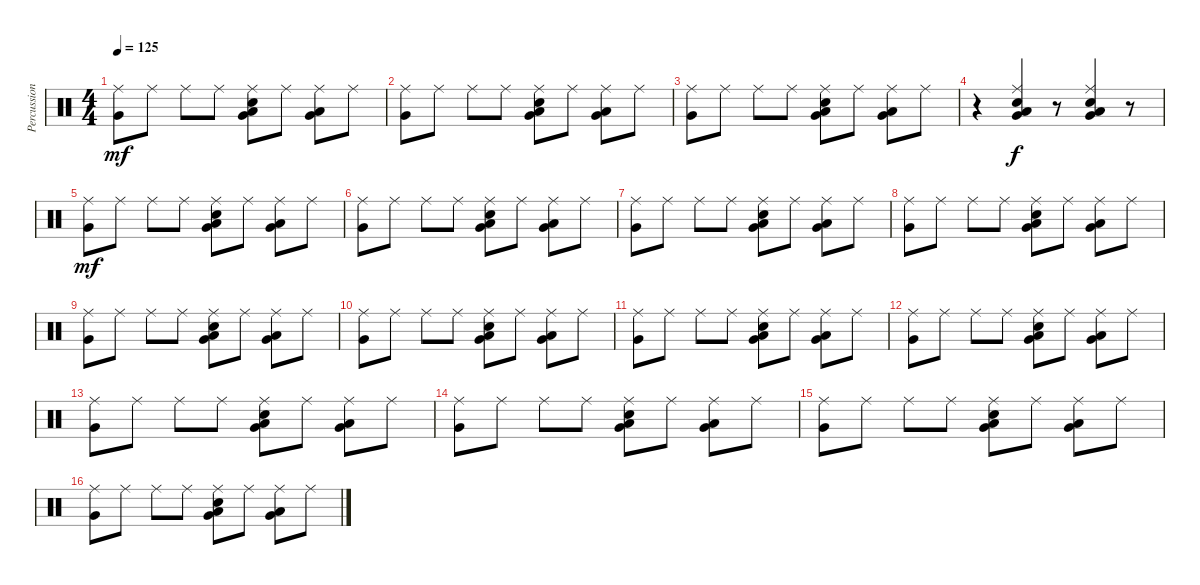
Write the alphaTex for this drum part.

\track ("Percussion" "Percussion") {instrument percussion}
\staff {score}
\articulation defaults
\ts (4 4)
\tempo 125
\clef neutral
\ks c
("Very Low Tom (hit)" "Ride (middle)").8{dy mf} "Ride (middle)".8 "Ride (middle)".8 "Ride (middle)".8 ("Very Low Tom (hit)" "Snare (hit) 2" "Low Floor Tom (hit)" "Ride (middle)").8 "Ride (middle)".8 ("Very Low Tom (hit)" "Low Floor Tom (hit)" "Ride (middle)").8 "Ride (middle)".8 |
("Very Low Tom (hit)" "Ride (middle)").8 "Ride (middle)".8 "Ride (middle)".8 "Ride (middle)".8 ("Very Low Tom (hit)" "Snare (hit) 2" "Low Floor Tom (hit)" "Ride (middle)").8 "Ride (middle)".8 ("Very Low Tom (hit)" "Low Floor Tom (hit)" "Ride (middle)").8 "Ride (middle)".8 |
("Very Low Tom (hit)" "Ride (middle)").8 "Ride (middle)".8 "Ride (middle)".8 "Ride (middle)".8 ("Very Low Tom (hit)" "Snare (hit) 2" "Low Floor Tom (hit)" "Ride (middle)").8 "Ride (middle)".8 ("Very Low Tom (hit)" "Low Floor Tom (hit)" "Ride (middle)").8 "Ride (middle)".8 |
r.4 ("Very Low Tom (hit)" "Low Floor Tom (hit)" "Ride (middle)" "Snare (hit) 2").4{dy f} r.8 ("Very Low Tom (hit)" "Low Floor Tom (hit)" "Ride (middle)" "Snare (hit) 2").4 r.8 |
("Very Low Tom (hit)" "Ride (middle)").8{dy mf} "Ride (middle)".8 "Ride (middle)".8 "Ride (middle)".8 ("Very Low Tom (hit)" "Snare (hit) 2" "Low Floor Tom (hit)" "Ride (middle)").8 "Ride (middle)".8 ("Very Low Tom (hit)" "Low Floor Tom (hit)" "Ride (middle)").8 "Ride (middle)".8 |
("Very Low Tom (hit)" "Ride (middle)").8 "Ride (middle)".8 "Ride (middle)".8 "Ride (middle)".8 ("Very Low Tom (hit)" "Snare (hit) 2" "Low Floor Tom (hit)" "Ride (middle)").8 "Ride (middle)".8 ("Very Low Tom (hit)" "Low Floor Tom (hit)" "Ride (middle)").8 "Ride (middle)".8 |
("Very Low Tom (hit)" "Ride (middle)").8 "Ride (middle)".8 "Ride (middle)".8 "Ride (middle)".8 ("Very Low Tom (hit)" "Snare (hit) 2" "Low Floor Tom (hit)" "Ride (middle)").8 "Ride (middle)".8 ("Very Low Tom (hit)" "Low Floor Tom (hit)" "Ride (middle)").8 "Ride (middle)".8 |
("Very Low Tom (hit)" "Ride (middle)").8 "Ride (middle)".8 "Ride (middle)".8 "Ride (middle)".8 ("Very Low Tom (hit)" "Snare (hit) 2" "Low Floor Tom (hit)" "Ride (middle)").8 "Ride (middle)".8 ("Very Low Tom (hit)" "Low Floor Tom (hit)" "Ride (middle)").8 "Ride (middle)".8 |
("Very Low Tom (hit)" "Ride (middle)").8 "Ride (middle)".8 "Ride (middle)".8 "Ride (middle)".8 ("Very Low Tom (hit)" "Snare (hit) 2" "Low Floor Tom (hit)" "Ride (middle)").8 "Ride (middle)".8 ("Very Low Tom (hit)" "Low Floor Tom (hit)" "Ride (middle)").8 "Ride (middle)".8 |
("Very Low Tom (hit)" "Ride (middle)").8 "Ride (middle)".8 "Ride (middle)".8 "Ride (middle)".8 ("Very Low Tom (hit)" "Snare (hit) 2" "Low Floor Tom (hit)" "Ride (middle)").8 "Ride (middle)".8 ("Very Low Tom (hit)" "Low Floor Tom (hit)" "Ride (middle)").8 "Ride (middle)".8 |
("Very Low Tom (hit)" "Ride (middle)").8 "Ride (middle)".8 "Ride (middle)".8 "Ride (middle)".8 ("Very Low Tom (hit)" "Snare (hit) 2" "Low Floor Tom (hit)" "Ride (middle)").8 "Ride (middle)".8 ("Very Low Tom (hit)" "Low Floor Tom (hit)" "Ride (middle)").8 "Ride (middle)".8 |
("Very Low Tom (hit)" "Ride (middle)").8 "Ride (middle)".8 "Ride (middle)".8 "Ride (middle)".8 ("Very Low Tom (hit)" "Snare (hit) 2" "Low Floor Tom (hit)" "Ride (middle)").8 "Ride (middle)".8 ("Very Low Tom (hit)" "Low Floor Tom (hit)" "Ride (middle)").8 "Ride (middle)".8 |
("Very Low Tom (hit)" "Ride (middle)").8 "Ride (middle)".8 "Ride (middle)".8 "Ride (middle)".8 ("Very Low Tom (hit)" "Snare (hit) 2" "Low Floor Tom (hit)" "Ride (middle)").8 "Ride (middle)".8 ("Very Low Tom (hit)" "Low Floor Tom (hit)" "Ride (middle)").8 "Ride (middle)".8 |
("Very Low Tom (hit)" "Ride (middle)").8 "Ride (middle)".8 "Ride (middle)".8 "Ride (middle)".8 ("Very Low Tom (hit)" "Snare (hit) 2" "Low Floor Tom (hit)" "Ride (middle)").8 "Ride (middle)".8 ("Very Low Tom (hit)" "Low Floor Tom (hit)" "Ride (middle)").8 "Ride (middle)".8 |
("Very Low Tom (hit)" "Ride (middle)").8 "Ride (middle)".8 "Ride (middle)".8 "Ride (middle)".8 ("Very Low Tom (hit)" "Snare (hit) 2" "Low Floor Tom (hit)" "Ride (middle)").8 "Ride (middle)".8 ("Very Low Tom (hit)" "Low Floor Tom (hit)" "Ride (middle)").8 "Ride (middle)".8 |
("Very Low Tom (hit)" "Ride (middle)").8 "Ride (middle)".8 "Ride (middle)".8 "Ride (middle)".8 ("Very Low Tom (hit)" "Snare (hit) 2" "Low Floor Tom (hit)" "Ride (middle)").8 "Ride (middle)".8 ("Very Low Tom (hit)" "Low Floor Tom (hit)" "Ride (middle)").8 "Ride (middle)".8
